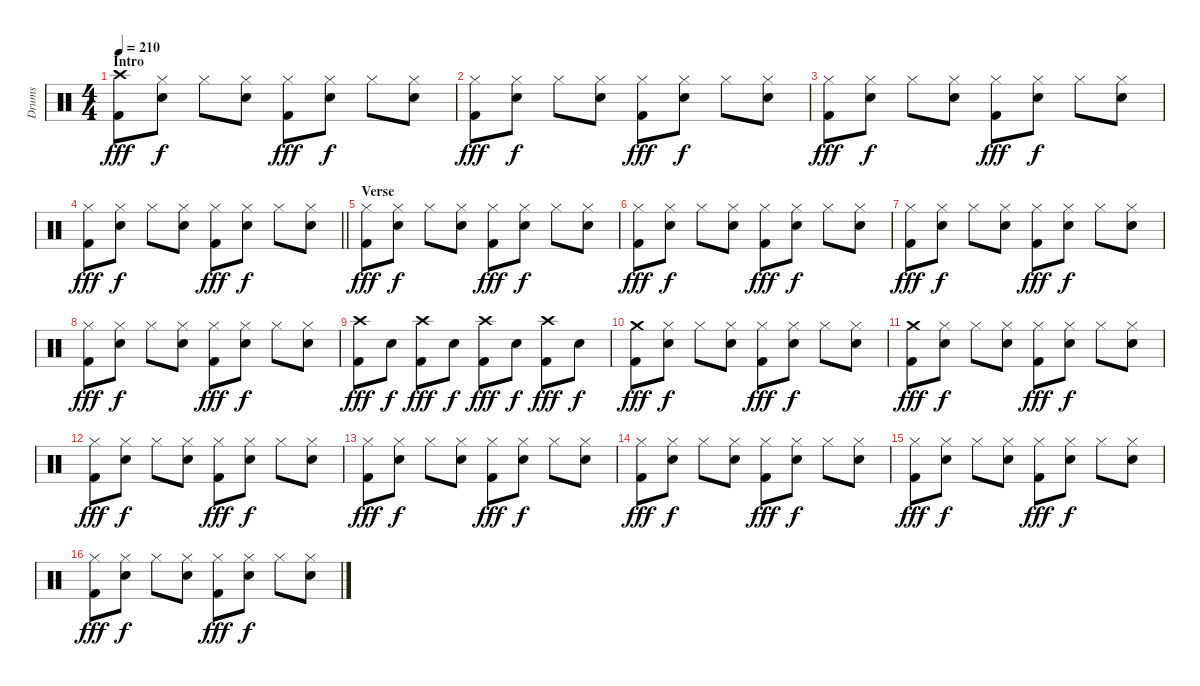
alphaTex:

\track ("Drums" "Drums") {instrument percussion}
\staff {score}
\articulation defaults
\ts (4 4)
\section ("" "Intro")
\tempo 210
\clef neutral
\ks c
("Crash high (hit)" "Kick (hit) 2").8{dy fff} ("Hi-Hat (closed)" "Snare (hit) 2").8{dy f} "Hi-Hat (closed)".8 ("Hi-Hat (closed)" "Snare (hit) 2").8 ("Hi-Hat (closed)" "Kick (hit) 2").8{dy fff} ("Hi-Hat (closed)" "Snare (hit) 2").8{dy f} "Hi-Hat (closed)".8 ("Hi-Hat (closed)" "Snare (hit) 2").8 |
("Hi-Hat (closed)" "Kick (hit) 2").8{dy fff} ("Hi-Hat (closed)" "Snare (hit) 2").8{dy f} "Hi-Hat (closed)".8 ("Hi-Hat (closed)" "Snare (hit) 2").8 ("Hi-Hat (closed)" "Kick (hit) 2").8{dy fff} ("Hi-Hat (closed)" "Snare (hit) 2").8{dy f} "Hi-Hat (closed)".8 ("Hi-Hat (closed)" "Snare (hit) 2").8 |
("Hi-Hat (closed)" "Kick (hit) 2").8{dy fff} ("Hi-Hat (closed)" "Snare (hit) 2").8{dy f} "Hi-Hat (closed)".8 ("Hi-Hat (closed)" "Snare (hit) 2").8 ("Hi-Hat (closed)" "Kick (hit) 2").8{dy fff} ("Hi-Hat (closed)" "Snare (hit) 2").8{dy f} "Hi-Hat (closed)".8 ("Hi-Hat (closed)" "Snare (hit) 2").8 |
\barLineRight lightlight
("Hi-Hat (closed)" "Kick (hit) 2").8{dy fff} ("Hi-Hat (closed)" "Snare (hit) 2").8{dy f} "Hi-Hat (closed)".8 ("Hi-Hat (closed)" "Snare (hit) 2").8 ("Hi-Hat (closed)" "Kick (hit) 2").8{dy fff} ("Hi-Hat (closed)" "Snare (hit) 2").8{dy f} "Hi-Hat (closed)".8 ("Hi-Hat (closed)" "Snare (hit) 2").8 |
\section ("" "Verse")
("Hi-Hat (closed)" "Kick (hit) 2").8{dy fff} ("Hi-Hat (closed)" "Snare (hit) 2").8{dy f} "Hi-Hat (closed)".8 ("Hi-Hat (closed)" "Snare (hit) 2").8 ("Hi-Hat (closed)" "Kick (hit) 2").8{dy fff} ("Hi-Hat (closed)" "Snare (hit) 2").8{dy f} "Hi-Hat (closed)".8 ("Hi-Hat (closed)" "Snare (hit) 2").8 |
("Hi-Hat (closed)" "Kick (hit) 2").8{dy fff} ("Hi-Hat (closed)" "Snare (hit) 2").8{dy f} "Hi-Hat (closed)".8 ("Hi-Hat (closed)" "Snare (hit) 2").8 ("Hi-Hat (closed)" "Kick (hit) 2").8{dy fff} ("Hi-Hat (closed)" "Snare (hit) 2").8{dy f} "Hi-Hat (closed)".8 ("Hi-Hat (closed)" "Snare (hit) 2").8 |
("Hi-Hat (closed)" "Kick (hit) 2").8{dy fff} ("Hi-Hat (closed)" "Snare (hit) 2").8{dy f} "Hi-Hat (closed)".8 ("Hi-Hat (closed)" "Snare (hit) 2").8 ("Hi-Hat (closed)" "Kick (hit) 2").8{dy fff} ("Hi-Hat (closed)" "Snare (hit) 2").8{dy f} "Hi-Hat (closed)".8 ("Hi-Hat (closed)" "Snare (hit) 2").8 |
("Hi-Hat (closed)" "Kick (hit) 2").8{dy fff} ("Hi-Hat (closed)" "Snare (hit) 2").8{dy f} "Hi-Hat (closed)".8 ("Hi-Hat (closed)" "Snare (hit) 2").8 ("Hi-Hat (closed)" "Kick (hit) 2").8{dy fff} ("Hi-Hat (closed)" "Snare (hit) 2").8{dy f} "Hi-Hat (closed)".8 ("Hi-Hat (closed)" "Snare (hit) 2").8 |
("Crash high (hit)" "Kick (hit) 2").8{dy fff} "Snare (hit) 2".8{dy f} ("Crash high (hit)" "Kick (hit) 2").8{dy fff} "Snare (hit) 2".8{dy f} ("Crash high (hit)" "Kick (hit) 2").8{dy fff} "Snare (hit) 2".8{dy f} ("Crash high (hit)" "Kick (hit) 2").8{dy fff} "Snare (hit) 2".8{dy f} |
("Crash medium (hit)" "Kick (hit) 2").8{dy fff} ("Hi-Hat (closed)" "Snare (hit) 2").8{dy f} "Hi-Hat (closed)".8 ("Hi-Hat (closed)" "Snare (hit) 2").8 ("Hi-Hat (closed)" "Kick (hit) 2").8{dy fff} ("Hi-Hat (closed)" "Snare (hit) 2").8{dy f} "Hi-Hat (closed)".8 ("Hi-Hat (closed)" "Snare (hit) 2").8 |
("Crash medium (hit)" "Kick (hit) 2").8{dy fff} ("Hi-Hat (closed)" "Snare (hit) 2").8{dy f} "Hi-Hat (closed)".8 ("Hi-Hat (closed)" "Snare (hit) 2").8 ("Hi-Hat (closed)" "Kick (hit) 2").8{dy fff} ("Hi-Hat (closed)" "Snare (hit) 2").8{dy f} "Hi-Hat (closed)".8 ("Hi-Hat (closed)" "Snare (hit) 2").8 |
("Hi-Hat (closed)" "Kick (hit) 2").8{dy fff} ("Hi-Hat (closed)" "Snare (hit) 2").8{dy f} "Hi-Hat (closed)".8 ("Hi-Hat (closed)" "Snare (hit) 2").8 ("Hi-Hat (closed)" "Kick (hit) 2").8{dy fff} ("Hi-Hat (closed)" "Snare (hit) 2").8{dy f} "Hi-Hat (closed)".8 ("Hi-Hat (closed)" "Snare (hit) 2").8 |
("Hi-Hat (closed)" "Kick (hit) 2").8{dy fff} ("Hi-Hat (closed)" "Snare (hit) 2").8{dy f} "Hi-Hat (closed)".8 ("Hi-Hat (closed)" "Snare (hit) 2").8 ("Hi-Hat (closed)" "Kick (hit) 2").8{dy fff} ("Hi-Hat (closed)" "Snare (hit) 2").8{dy f} "Hi-Hat (closed)".8 ("Hi-Hat (closed)" "Snare (hit) 2").8 |
("Hi-Hat (closed)" "Kick (hit) 2").8{dy fff} ("Hi-Hat (closed)" "Snare (hit) 2").8{dy f} "Hi-Hat (closed)".8 ("Hi-Hat (closed)" "Snare (hit) 2").8 ("Hi-Hat (closed)" "Kick (hit) 2").8{dy fff} ("Hi-Hat (closed)" "Snare (hit) 2").8{dy f} "Hi-Hat (closed)".8 ("Hi-Hat (closed)" "Snare (hit) 2").8 |
("Hi-Hat (closed)" "Kick (hit) 2").8{dy fff} ("Hi-Hat (closed)" "Snare (hit) 2").8{dy f} "Hi-Hat (closed)".8 ("Hi-Hat (closed)" "Snare (hit) 2").8 ("Hi-Hat (closed)" "Kick (hit) 2").8{dy fff} ("Hi-Hat (closed)" "Snare (hit) 2").8{dy f} "Hi-Hat (closed)".8 ("Hi-Hat (closed)" "Snare (hit) 2").8 |
("Hi-Hat (closed)" "Kick (hit) 2").8{dy fff} ("Hi-Hat (closed)" "Snare (hit) 2").8{dy f} "Hi-Hat (closed)".8 ("Hi-Hat (closed)" "Snare (hit) 2").8 ("Hi-Hat (closed)" "Kick (hit) 2").8{dy fff} ("Hi-Hat (closed)" "Snare (hit) 2").8{dy f} "Hi-Hat (closed)".8 ("Hi-Hat (closed)" "Snare (hit) 2").8
